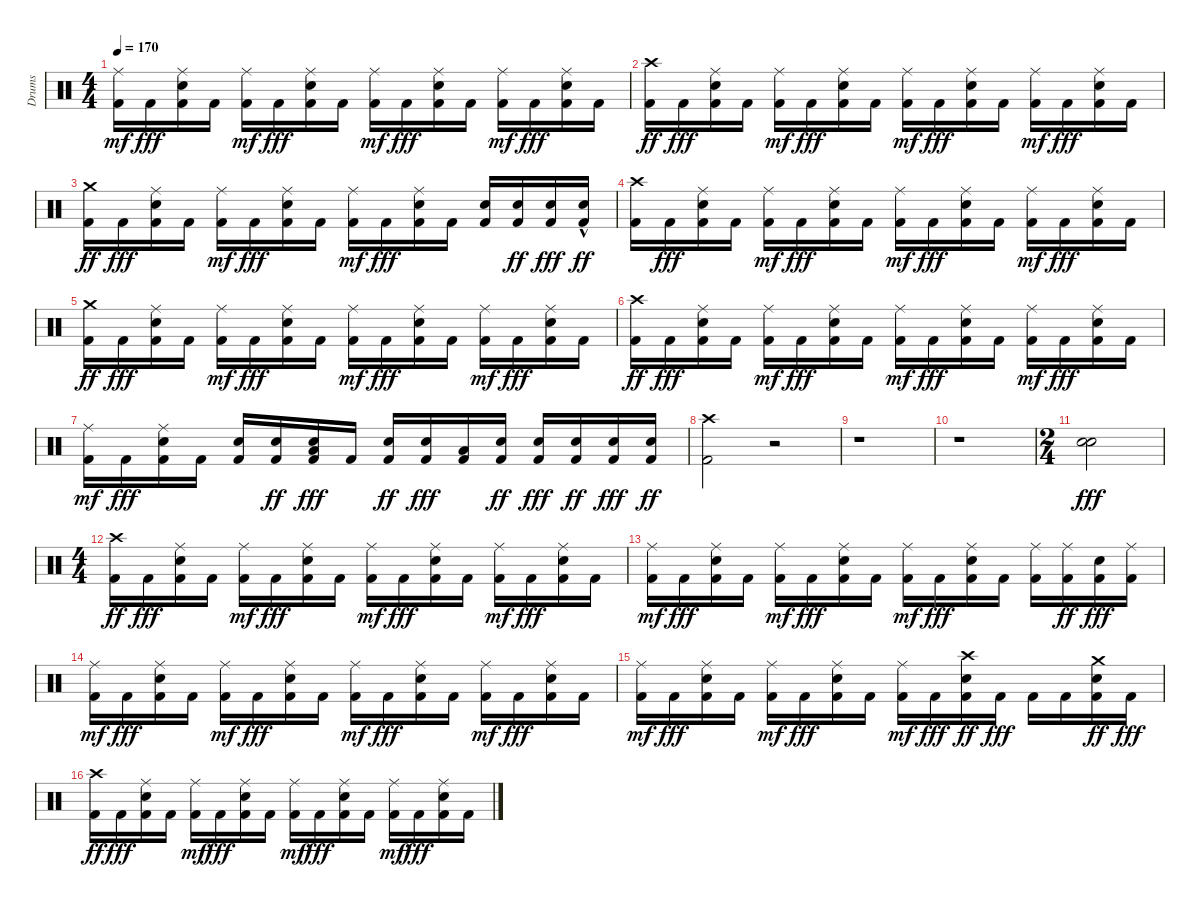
\track ("Drums" "Drums") {instrument percussion}
\staff {score}
\articulation defaults
\ts (4 4)
\tempo 170
\clef neutral
\ks c
("Kick (hit) 2" "Ride (middle)").16{dy mf} "Kick (hit) 2".16{dy fff} ("Kick (hit) 2" "Snare (hit) 2" "Ride (middle)").16 "Kick (hit) 2".16 ("Kick (hit) 2" "Ride (middle)").16{dy mf} "Kick (hit) 2".16{dy fff} ("Kick (hit) 2" "Snare (hit) 2" "Ride (middle)").16 "Kick (hit) 2".16 ("Kick (hit) 2" "Ride (middle)").16{dy mf} "Kick (hit) 2".16{dy fff} ("Kick (hit) 2" "Snare (hit) 2" "Ride (middle)").16 "Kick (hit) 2".16 ("Kick (hit) 2" "Ride (middle)").16{dy mf} "Kick (hit) 2".16{dy fff} ("Kick (hit) 2" "Snare (hit) 2" "Ride (middle)").16 "Kick (hit) 2".16 |
("Kick (hit) 2" "Crash high (hit)").16{dy ff} "Kick (hit) 2".16{dy fff} ("Kick (hit) 2" "Snare (hit) 2" "Ride (middle)").16 "Kick (hit) 2".16 ("Kick (hit) 2" "Ride (middle)").16{dy mf} "Kick (hit) 2".16{dy fff} ("Kick (hit) 2" "Snare (hit) 2" "Ride (middle)").16 "Kick (hit) 2".16 ("Kick (hit) 2" "Ride (middle)").16{dy mf} "Kick (hit) 2".16{dy fff} ("Kick (hit) 2" "Snare (hit) 2" "Ride (middle)").16 "Kick (hit) 2".16 ("Kick (hit) 2" "Ride (middle)").16{dy mf} "Kick (hit) 2".16{dy fff} ("Kick (hit) 2" "Snare (hit) 2" "Ride (middle)").16 "Kick (hit) 2".16 |
("Kick (hit) 2" "Crash medium (hit)").16{dy ff} "Kick (hit) 2".16{dy fff} ("Kick (hit) 2" "Snare (hit) 2" "Ride (middle)").16 "Kick (hit) 2".16 ("Kick (hit) 2" "Ride (middle)").16{dy mf} "Kick (hit) 2".16{dy fff} ("Kick (hit) 2" "Snare (hit) 2" "Ride (middle)").16 "Kick (hit) 2".16 ("Kick (hit) 2" "Ride (middle)").16{dy mf} "Kick (hit) 2".16{dy fff} ("Kick (hit) 2" "Snare (hit) 2" "Ride (middle)").16 "Kick (hit) 2".16 ("Kick (hit) 2" "Snare (hit) 2").16 ("Kick (hit) 2" "Snare (hit) 2").16{dy ff} ("Kick (hit) 2" "Snare (hit) 2").16{dy fff} ("Kick (hit) 2" "Snare (hit) 2"{hac}).16{dy ff} |
("Kick (hit) 2" "Crash high (hit)").16 "Kick (hit) 2".16{dy fff} ("Kick (hit) 2" "Snare (hit) 2" "Ride (middle)").16 "Kick (hit) 2".16 ("Kick (hit) 2" "Ride (middle)").16{dy mf} "Kick (hit) 2".16{dy fff} ("Kick (hit) 2" "Snare (hit) 2" "Ride (middle)").16 "Kick (hit) 2".16 ("Kick (hit) 2" "Ride (middle)").16{dy mf} "Kick (hit) 2".16{dy fff} ("Kick (hit) 2" "Snare (hit) 2" "Ride (middle)").16 "Kick (hit) 2".16 ("Kick (hit) 2" "Ride (middle)").16{dy mf} "Kick (hit) 2".16{dy fff} ("Kick (hit) 2" "Snare (hit) 2" "Ride (middle)").16 "Kick (hit) 2".16 |
("Kick (hit) 2" "Crash medium (hit)").16{dy ff} "Kick (hit) 2".16{dy fff} ("Kick (hit) 2" "Snare (hit) 2" "Ride (middle)").16 "Kick (hit) 2".16 ("Kick (hit) 2" "Ride (middle)").16{dy mf} "Kick (hit) 2".16{dy fff} ("Kick (hit) 2" "Snare (hit) 2" "Ride (middle)").16 "Kick (hit) 2".16 ("Kick (hit) 2" "Ride (middle)").16{dy mf} "Kick (hit) 2".16{dy fff} ("Kick (hit) 2" "Snare (hit) 2" "Ride (middle)").16 "Kick (hit) 2".16 ("Kick (hit) 2" "Ride (middle)").16{dy mf} "Kick (hit) 2".16{dy fff} ("Kick (hit) 2" "Snare (hit) 2" "Ride (middle)").16 "Kick (hit) 2".16 |
("Kick (hit) 2" "Crash high (hit)").16{dy ff} "Kick (hit) 2".16{dy fff} ("Kick (hit) 2" "Snare (hit) 2" "Ride (middle)").16 "Kick (hit) 2".16 ("Kick (hit) 2" "Ride (middle)").16{dy mf} "Kick (hit) 2".16{dy fff} ("Kick (hit) 2" "Snare (hit) 2" "Ride (middle)").16 "Kick (hit) 2".16 ("Kick (hit) 2" "Ride (middle)").16{dy mf} "Kick (hit) 2".16{dy fff} ("Kick (hit) 2" "Snare (hit) 2" "Ride (middle)").16 "Kick (hit) 2".16 ("Kick (hit) 2" "Ride (middle)").16{dy mf} "Kick (hit) 2".16{dy fff} ("Kick (hit) 2" "Snare (hit) 2" "Ride (middle)").16 "Kick (hit) 2".16 |
("Kick (hit) 2" "Ride (middle)").16{dy mf} "Kick (hit) 2".16{dy fff} ("Kick (hit) 2" "Snare (hit) 2" "Ride (middle)").16 "Kick (hit) 2".16 ("Kick (hit) 2" "Snare (hit) 2").16 ("Kick (hit) 2" "Snare (hit) 2").16{dy ff} ("Kick (hit) 2" "Snare (hit) 2" "Low Tom (hit)").16{dy fff} "Kick (hit) 2".16 ("Kick (hit) 2" "Snare (hit) 2").16{dy ff} ("Kick (hit) 2" "Snare (hit) 2").16{dy fff} ("Kick (hit) 2" "Low Tom (hit)").16 ("Kick (hit) 2" "Snare (hit) 2").16{dy ff} ("Kick (hit) 2" "Snare (hit) 2").16{dy fff} ("Kick (hit) 2" "Snare (hit) 2").16{dy ff} ("Kick (hit) 2" "Snare (hit) 2").16{dy fff} ("Kick (hit) 2" "Snare (hit) 2").16{dy ff} |
("Kick (hit) 2" "Crash high (hit)").2 r.2 |
r.1 |
r.1 |
\ts (2 4)
("Snare (hit) 2" "Snare (hit) 2").2{dy fff} |
\ts (4 4)
("Kick (hit) 2" "Crash high (hit)").16{dy ff} "Kick (hit) 2".16{dy fff} ("Kick (hit) 2" "Snare (hit) 2" "Ride (middle)").16 "Kick (hit) 2".16 ("Kick (hit) 2" "Ride (middle)").16{dy mf} "Kick (hit) 2".16{dy fff} ("Kick (hit) 2" "Snare (hit) 2" "Ride (middle)").16 "Kick (hit) 2".16 ("Kick (hit) 2" "Ride (middle)").16{dy mf} "Kick (hit) 2".16{dy fff} ("Kick (hit) 2" "Snare (hit) 2" "Ride (middle)").16 "Kick (hit) 2".16 ("Kick (hit) 2" "Ride (middle)").16{dy mf} "Kick (hit) 2".16{dy fff} ("Kick (hit) 2" "Snare (hit) 2" "Ride (middle)").16 "Kick (hit) 2".16 |
("Kick (hit) 2" "Ride (middle)").16{dy mf} "Kick (hit) 2".16{dy fff} ("Kick (hit) 2" "Snare (hit) 2" "Ride (middle)").16 "Kick (hit) 2".16 ("Kick (hit) 2" "Ride (middle)").16{dy mf} "Kick (hit) 2".16{dy fff} ("Kick (hit) 2" "Snare (hit) 2" "Ride (middle)").16 "Kick (hit) 2".16 ("Kick (hit) 2" "Ride (middle)").16{dy mf} "Kick (hit) 2".16{dy fff} ("Kick (hit) 2" "Snare (hit) 2" "Ride (middle)").16 "Kick (hit) 2".16 ("Kick (hit) 2" "Ride (middle)").16 ("Kick (hit) 2" "Ride (middle)").16{dy ff} ("Kick (hit) 2" "Snare (hit) 2").16{dy fff} ("Kick (hit) 2" "Ride (middle)").16 |
("Kick (hit) 2" "Ride (middle)").16{dy mf} "Kick (hit) 2".16{dy fff} ("Kick (hit) 2" "Snare (hit) 2" "Ride (middle)").16 "Kick (hit) 2".16 ("Kick (hit) 2" "Ride (middle)").16{dy mf} "Kick (hit) 2".16{dy fff} ("Kick (hit) 2" "Snare (hit) 2" "Ride (middle)").16 "Kick (hit) 2".16 ("Kick (hit) 2" "Ride (middle)").16{dy mf} "Kick (hit) 2".16{dy fff} ("Kick (hit) 2" "Snare (hit) 2" "Ride (middle)").16 "Kick (hit) 2".16 ("Kick (hit) 2" "Ride (middle)").16{dy mf} "Kick (hit) 2".16{dy fff} ("Kick (hit) 2" "Snare (hit) 2" "Ride (middle)").16 "Kick (hit) 2".16 |
("Kick (hit) 2" "Ride (middle)").16{dy mf} "Kick (hit) 2".16{dy fff} ("Kick (hit) 2" "Snare (hit) 2" "Ride (middle)").16 "Kick (hit) 2".16 ("Kick (hit) 2" "Ride (middle)").16{dy mf} "Kick (hit) 2".16{dy fff} ("Kick (hit) 2" "Snare (hit) 2" "Ride (middle)").16 "Kick (hit) 2".16 ("Kick (hit) 2" "Ride (middle)").16{dy mf} "Kick (hit) 2".16{dy fff} ("Kick (hit) 2" "Snare (hit) 2" "Crash high (hit)").16{dy ff} "Kick (hit) 2".16{dy fff} "Kick (hit) 2".16 "Kick (hit) 2".16 ("Kick (hit) 2" "Snare (hit) 2" "Crash medium (hit)").16{dy ff} "Kick (hit) 2".16{dy fff} |
("Kick (hit) 2" "Crash high (hit)").16{dy ff} "Kick (hit) 2".16{dy fff} ("Kick (hit) 2" "Snare (hit) 2" "Ride (middle)").16 "Kick (hit) 2".16 ("Kick (hit) 2" "Ride (middle)").16{dy mf} "Kick (hit) 2".16{dy fff} ("Kick (hit) 2" "Snare (hit) 2" "Ride (middle)").16 "Kick (hit) 2".16 ("Kick (hit) 2" "Ride (middle)").16{dy mf} "Kick (hit) 2".16{dy fff} ("Kick (hit) 2" "Snare (hit) 2" "Ride (middle)").16 "Kick (hit) 2".16 ("Kick (hit) 2" "Ride (middle)").16{dy mf} "Kick (hit) 2".16{dy fff} ("Kick (hit) 2" "Snare (hit) 2" "Ride (middle)").16 "Kick (hit) 2".16
